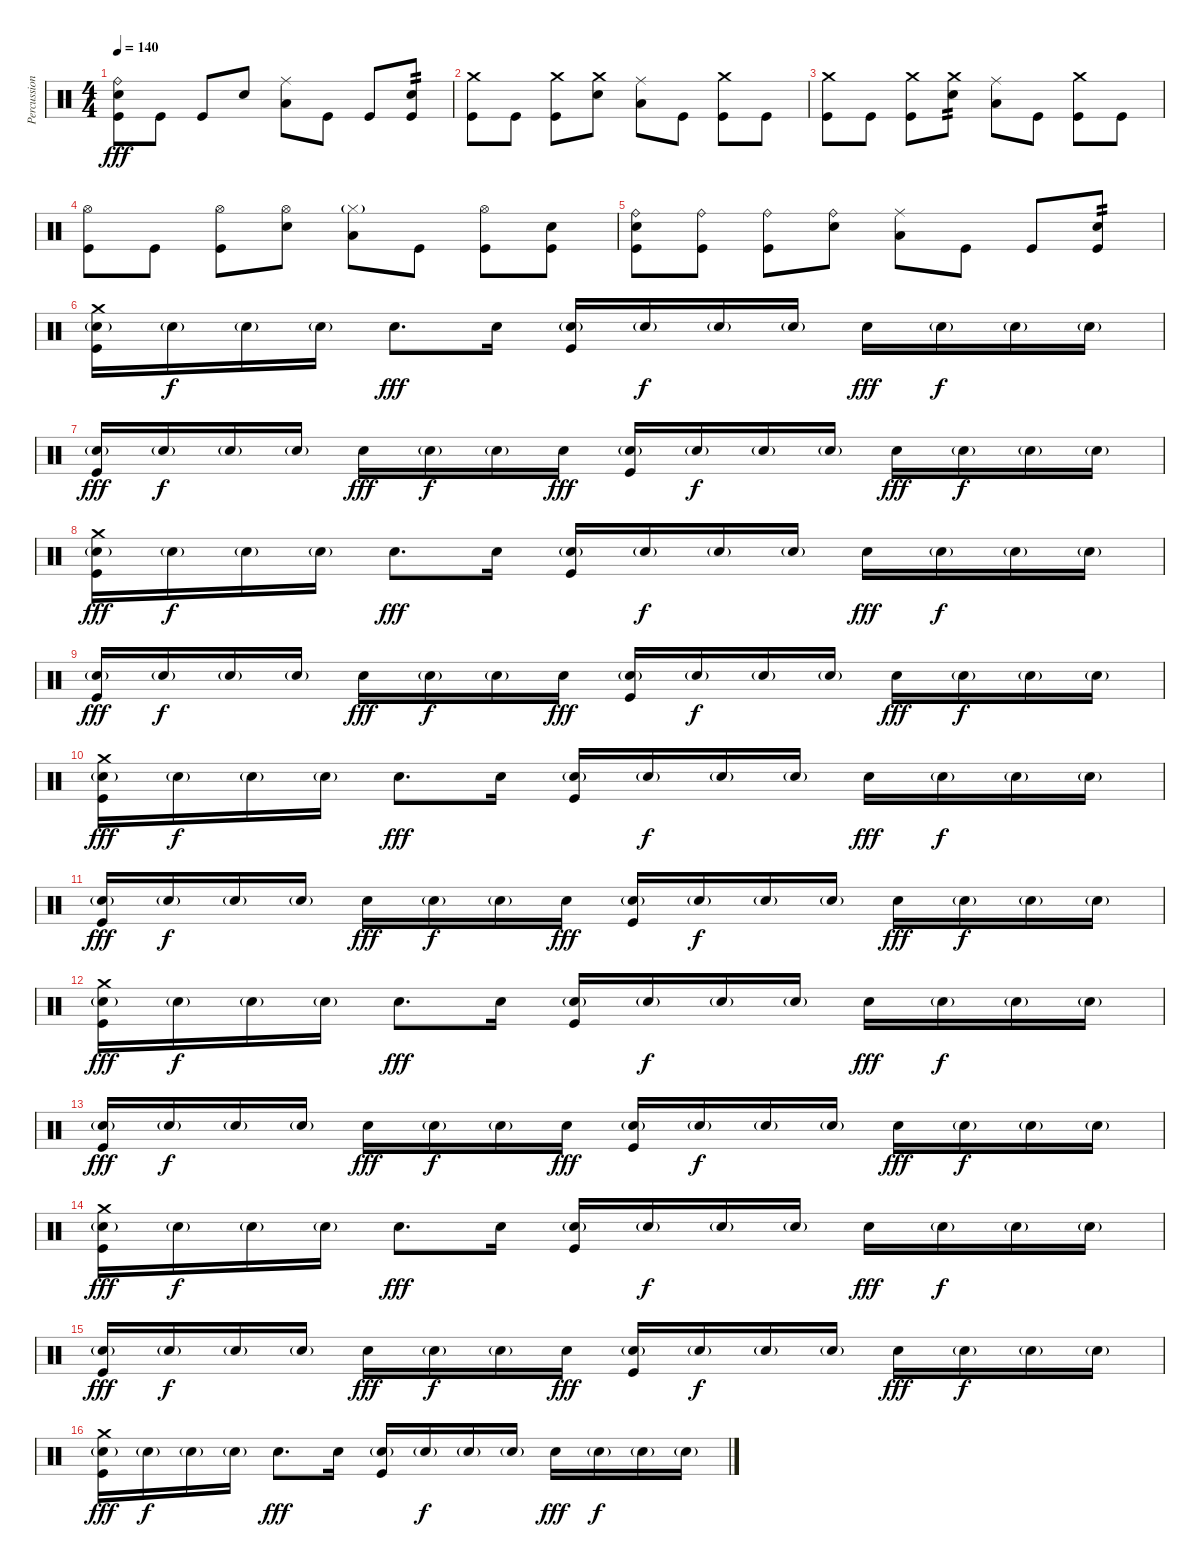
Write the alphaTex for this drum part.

\track ("Percussion" "Percussion") {instrument percussion}
\staff {score}
\articulation defaults
\ts (4 4)
\tempo 140
\clef neutral
\ks c
("Ride (bell)" "Snare (hit) 2" "Kick (hit)").8{dy fff} "Kick (hit)".8 "Kick (hit)".8 "Snare (hit) 2".8 ("Ride (middle)" "Low Floor Tom (hit)").8 "Kick (hit)".8 "Kick (hit)".8 ("Snare (hit) 2" "Kick (hit)").8{tp 2} |
("Crash medium (hit)" "Kick (hit)").8 "Kick (hit)".8 ("Crash medium (hit)" "Kick (hit)").8 ("Crash medium (hit)" "Snare (hit) 2").8 ("Ride (middle)" "Low Floor Tom (hit)").8 "Kick (hit)".8 ("Crash medium (hit)" "Kick (hit)").8 "Kick (hit)".8 |
("Crash medium (hit)" "Kick (hit)").8 "Kick (hit)".8 ("Crash medium (hit)" "Kick (hit)").8 ("Crash medium (hit)" "Snare (hit) 2").8{tp 2} ("Ride (middle)" "Low Floor Tom (hit)").8 "Kick (hit)".8 ("Crash medium (hit)" "Kick (hit)").8 "Kick (hit)".8 |
("Hi-Hat (open)" "Kick (hit)").8 "Kick (hit)".8 ("Hi-Hat (open)" "Kick (hit)").8 ("Hi-Hat (open)" "Snare (hit) 2").8 ("Hi-Hat (closed)"{g} "Low Floor Tom (hit)").8 "Kick (hit)".8 ("Hi-Hat (open)" "Kick (hit)").8 ("Snare (hit) 2" "Kick (hit)").8 |
("Ride (bell)" "Snare (hit) 2" "Kick (hit)").8 ("Ride (bell)" "Kick (hit)").8 ("Ride (bell)" "Kick (hit)").8 ("Ride (bell)" "Snare (hit) 2").8 ("Ride (middle)" "Low Floor Tom (hit)").8 "Kick (hit)".8 "Kick (hit)".8 ("Snare (hit) 2" "Kick (hit)").8{tp 2} |
("Crash medium (hit)" "Snare (hit) 2"{g} "Kick (hit)").16 "Snare (hit) 2"{g}.16{dy f} "Snare (hit) 2"{g}.16 "Snare (hit) 2"{g}.16 "Snare (hit) 2".8{d dy fff} "Snare (hit) 2".16 ("Snare (hit) 2"{g} "Kick (hit)").16 "Snare (hit) 2"{g}.16{dy f} "Snare (hit) 2"{g}.16 "Snare (hit) 2"{g}.16 "Snare (hit) 2".16{dy fff} "Snare (hit) 2"{g}.16{dy f} "Snare (hit) 2"{g}.16 "Snare (hit) 2"{g}.16 |
("Snare (hit) 2"{g} "Kick (hit)").16{dy fff} "Snare (hit) 2"{g}.16{dy f} "Snare (hit) 2"{g}.16 "Snare (hit) 2"{g}.16 "Snare (hit) 2".16{dy fff} "Snare (hit) 2"{g}.16{dy f} "Snare (hit) 2"{g}.16 "Snare (hit) 2".16{dy fff} ("Snare (hit) 2"{g} "Kick (hit)").16 "Snare (hit) 2"{g}.16{dy f} "Snare (hit) 2"{g}.16 "Snare (hit) 2"{g}.16 "Snare (hit) 2".16{dy fff} "Snare (hit) 2"{g}.16{dy f} "Snare (hit) 2"{g}.16 "Snare (hit) 2"{g}.16 |
("Crash medium (hit)" "Snare (hit) 2"{g} "Kick (hit)").16{dy fff} "Snare (hit) 2"{g}.16{dy f} "Snare (hit) 2"{g}.16 "Snare (hit) 2"{g}.16 "Snare (hit) 2".8{d dy fff} "Snare (hit) 2".16 ("Snare (hit) 2"{g} "Kick (hit)").16 "Snare (hit) 2"{g}.16{dy f} "Snare (hit) 2"{g}.16 "Snare (hit) 2"{g}.16 "Snare (hit) 2".16{dy fff} "Snare (hit) 2"{g}.16{dy f} "Snare (hit) 2"{g}.16 "Snare (hit) 2"{g}.16 |
("Snare (hit) 2"{g} "Kick (hit)").16{dy fff} "Snare (hit) 2"{g}.16{dy f} "Snare (hit) 2"{g}.16 "Snare (hit) 2"{g}.16 "Snare (hit) 2".16{dy fff} "Snare (hit) 2"{g}.16{dy f} "Snare (hit) 2"{g}.16 "Snare (hit) 2".16{dy fff} ("Snare (hit) 2"{g} "Kick (hit)").16 "Snare (hit) 2"{g}.16{dy f} "Snare (hit) 2"{g}.16 "Snare (hit) 2"{g}.16 "Snare (hit) 2".16{dy fff} "Snare (hit) 2"{g}.16{dy f} "Snare (hit) 2"{g}.16 "Snare (hit) 2"{g}.16 |
("Crash medium (hit)" "Snare (hit) 2"{g} "Kick (hit)").16{dy fff} "Snare (hit) 2"{g}.16{dy f} "Snare (hit) 2"{g}.16 "Snare (hit) 2"{g}.16 "Snare (hit) 2".8{d dy fff} "Snare (hit) 2".16 ("Snare (hit) 2"{g} "Kick (hit)").16 "Snare (hit) 2"{g}.16{dy f} "Snare (hit) 2"{g}.16 "Snare (hit) 2"{g}.16 "Snare (hit) 2".16{dy fff} "Snare (hit) 2"{g}.16{dy f} "Snare (hit) 2"{g}.16 "Snare (hit) 2"{g}.16 |
("Snare (hit) 2"{g} "Kick (hit)").16{dy fff} "Snare (hit) 2"{g}.16{dy f} "Snare (hit) 2"{g}.16 "Snare (hit) 2"{g}.16 "Snare (hit) 2".16{dy fff} "Snare (hit) 2"{g}.16{dy f} "Snare (hit) 2"{g}.16 "Snare (hit) 2".16{dy fff} ("Snare (hit) 2"{g} "Kick (hit)").16 "Snare (hit) 2"{g}.16{dy f} "Snare (hit) 2"{g}.16 "Snare (hit) 2"{g}.16 "Snare (hit) 2".16{dy fff} "Snare (hit) 2"{g}.16{dy f} "Snare (hit) 2"{g}.16 "Snare (hit) 2"{g}.16 |
("Crash medium (hit)" "Snare (hit) 2"{g} "Kick (hit)").16{dy fff} "Snare (hit) 2"{g}.16{dy f} "Snare (hit) 2"{g}.16 "Snare (hit) 2"{g}.16 "Snare (hit) 2".8{d dy fff} "Snare (hit) 2".16 ("Snare (hit) 2"{g} "Kick (hit)").16 "Snare (hit) 2"{g}.16{dy f} "Snare (hit) 2"{g}.16 "Snare (hit) 2"{g}.16 "Snare (hit) 2".16{dy fff} "Snare (hit) 2"{g}.16{dy f} "Snare (hit) 2"{g}.16 "Snare (hit) 2"{g}.16 |
("Snare (hit) 2"{g} "Kick (hit)").16{dy fff} "Snare (hit) 2"{g}.16{dy f} "Snare (hit) 2"{g}.16 "Snare (hit) 2"{g}.16 "Snare (hit) 2".16{dy fff} "Snare (hit) 2"{g}.16{dy f} "Snare (hit) 2"{g}.16 "Snare (hit) 2".16{dy fff} ("Snare (hit) 2"{g} "Kick (hit)").16 "Snare (hit) 2"{g}.16{dy f} "Snare (hit) 2"{g}.16 "Snare (hit) 2"{g}.16 "Snare (hit) 2".16{dy fff} "Snare (hit) 2"{g}.16{dy f} "Snare (hit) 2"{g}.16 "Snare (hit) 2"{g}.16 |
("Crash medium (hit)" "Snare (hit) 2"{g} "Kick (hit)").16{dy fff} "Snare (hit) 2"{g}.16{dy f} "Snare (hit) 2"{g}.16 "Snare (hit) 2"{g}.16 "Snare (hit) 2".8{d dy fff} "Snare (hit) 2".16 ("Snare (hit) 2"{g} "Kick (hit)").16 "Snare (hit) 2"{g}.16{dy f} "Snare (hit) 2"{g}.16 "Snare (hit) 2"{g}.16 "Snare (hit) 2".16{dy fff} "Snare (hit) 2"{g}.16{dy f} "Snare (hit) 2"{g}.16 "Snare (hit) 2"{g}.16 |
("Snare (hit) 2"{g} "Kick (hit)").16{dy fff} "Snare (hit) 2"{g}.16{dy f} "Snare (hit) 2"{g}.16 "Snare (hit) 2"{g}.16 "Snare (hit) 2".16{dy fff} "Snare (hit) 2"{g}.16{dy f} "Snare (hit) 2"{g}.16 "Snare (hit) 2".16{dy fff} ("Snare (hit) 2"{g} "Kick (hit)").16 "Snare (hit) 2"{g}.16{dy f} "Snare (hit) 2"{g}.16 "Snare (hit) 2"{g}.16 "Snare (hit) 2".16{dy fff} "Snare (hit) 2"{g}.16{dy f} "Snare (hit) 2"{g}.16 "Snare (hit) 2"{g}.16 |
("Crash medium (hit)" "Snare (hit) 2"{g} "Kick (hit)").16{dy fff} "Snare (hit) 2"{g}.16{dy f} "Snare (hit) 2"{g}.16 "Snare (hit) 2"{g}.16 "Snare (hit) 2".8{d dy fff} "Snare (hit) 2".16 ("Snare (hit) 2"{g} "Kick (hit)").16 "Snare (hit) 2"{g}.16{dy f} "Snare (hit) 2"{g}.16 "Snare (hit) 2"{g}.16 "Snare (hit) 2".16{dy fff} "Snare (hit) 2"{g}.16{dy f} "Snare (hit) 2"{g}.16 "Snare (hit) 2"{g}.16
